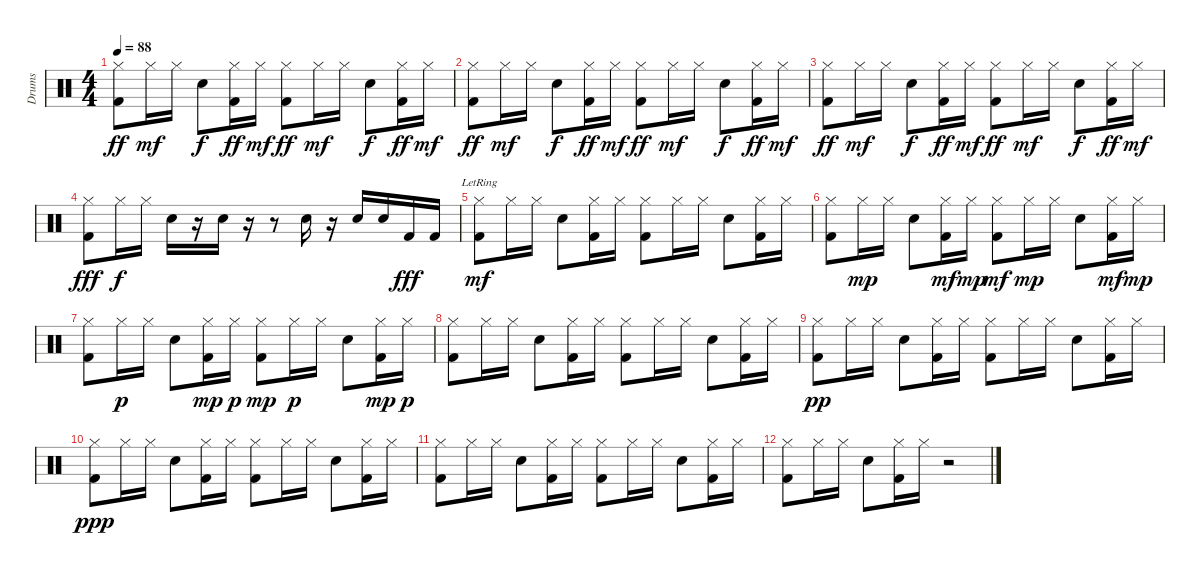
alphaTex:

\track ("Drums" "Drums") {instrument percussion}
\staff {score}
\articulation defaults
\ts (4 4)
\tempo 88
\clef neutral
\ks c
("Hi-Hat (closed)" "Kick (hit) 2").8{dy ff} "Hi-Hat (closed)".16{dy mf} "Hi-Hat (closed)".16 "Snare (hit) 2".8{dy f} ("Hi-Hat (closed)" "Kick (hit) 2").16{dy ff} "Hi-Hat (closed)".16{dy mf} ("Hi-Hat (closed)" "Kick (hit) 2").8{dy ff} "Hi-Hat (closed)".16{dy mf} "Hi-Hat (closed)".16 "Snare (hit) 2".8{dy f} ("Hi-Hat (closed)" "Kick (hit) 2").16{dy ff} "Hi-Hat (closed)".16{dy mf} |
("Hi-Hat (closed)" "Kick (hit) 2").8{dy ff} "Hi-Hat (closed)".16{dy mf} "Hi-Hat (closed)".16 "Snare (hit) 2".8{dy f} ("Hi-Hat (closed)" "Kick (hit) 2").16{dy ff} "Hi-Hat (closed)".16{dy mf} ("Hi-Hat (closed)" "Kick (hit) 2").8{dy ff} "Hi-Hat (closed)".16{dy mf} "Hi-Hat (closed)".16 "Snare (hit) 2".8{dy f} ("Hi-Hat (closed)" "Kick (hit) 2").16{dy ff} "Hi-Hat (closed)".16{dy mf} |
("Hi-Hat (closed)" "Kick (hit) 2").8{dy ff} "Hi-Hat (closed)".16{dy mf} "Hi-Hat (closed)".16 "Snare (hit) 2".8{dy f} ("Hi-Hat (closed)" "Kick (hit) 2").16{dy ff} "Hi-Hat (closed)".16{dy mf} ("Hi-Hat (closed)" "Kick (hit) 2").8{dy ff} "Hi-Hat (closed)".16{dy mf} "Hi-Hat (closed)".16 "Snare (hit) 2".8{dy f} ("Hi-Hat (closed)" "Kick (hit) 2").16{dy ff} "Hi-Hat (closed)".16{dy mf} |
("Hi-Hat (closed)" "Kick (hit) 2").8{dy fff} "Hi-Hat (closed)".16{dy f} "Hi-Hat (closed)".16 "Snare (hit) 2".16 r.16 "Snare (hit) 2".16 r.16 r.8 "Snare (hit) 2".16 r.16 "Snare (hit) 2".16 "Snare (hit) 2".16 "Kick (hit) 2".16{dy fff} "Kick (hit) 2".16 |
("Hi-Hat (closed)"{lr} "Kick (hit) 2").8{dy mf} "Hi-Hat (closed)".16 "Hi-Hat (closed)".16 "Snare (hit) 2".8 ("Hi-Hat (closed)" "Kick (hit) 2").16 "Hi-Hat (closed)".16 ("Hi-Hat (closed)" "Kick (hit) 2").8 "Hi-Hat (closed)".16 "Hi-Hat (closed)".16 "Snare (hit) 2".8 ("Hi-Hat (closed)" "Kick (hit) 2").16 "Hi-Hat (closed)".16 |
("Hi-Hat (closed)" "Kick (hit) 2").8 "Hi-Hat (closed)".16{dy mp} "Hi-Hat (closed)".16 "Snare (hit) 2".8 ("Hi-Hat (closed)" "Kick (hit) 2").16{dy mf} "Hi-Hat (closed)".16{dy mp} ("Hi-Hat (closed)" "Kick (hit) 2").8{dy mf} "Hi-Hat (closed)".16{dy mp} "Hi-Hat (closed)".16 "Snare (hit) 2".8 ("Hi-Hat (closed)" "Kick (hit) 2").16{dy mf} "Hi-Hat (closed)".16{dy mp} |
("Hi-Hat (closed)" "Kick (hit) 2").8 "Hi-Hat (closed)".16{dy p} "Hi-Hat (closed)".16 "Snare (hit) 2".8 ("Hi-Hat (closed)" "Kick (hit) 2").16{dy mp} "Hi-Hat (closed)".16{dy p} ("Hi-Hat (closed)" "Kick (hit) 2").8{dy mp} "Hi-Hat (closed)".16{dy p} "Hi-Hat (closed)".16 "Snare (hit) 2".8 ("Hi-Hat (closed)" "Kick (hit) 2").16{dy mp} "Hi-Hat (closed)".16{dy p} |
("Hi-Hat (closed)" "Kick (hit) 2").8 "Hi-Hat (closed)".16 "Hi-Hat (closed)".16 "Snare (hit) 2".8 ("Hi-Hat (closed)" "Kick (hit) 2").16 "Hi-Hat (closed)".16 ("Hi-Hat (closed)" "Kick (hit) 2").8 "Hi-Hat (closed)".16 "Hi-Hat (closed)".16 "Snare (hit) 2".8 ("Hi-Hat (closed)" "Kick (hit) 2").16 "Hi-Hat (closed)".16 |
("Hi-Hat (closed)" "Kick (hit) 2").8{dy pp} "Hi-Hat (closed)".16 "Hi-Hat (closed)".16 "Snare (hit) 2".8 ("Hi-Hat (closed)" "Kick (hit) 2").16 "Hi-Hat (closed)".16 ("Hi-Hat (closed)" "Kick (hit) 2").8 "Hi-Hat (closed)".16 "Hi-Hat (closed)".16 "Snare (hit) 2".8 ("Hi-Hat (closed)" "Kick (hit) 2").16 "Hi-Hat (closed)".16 |
("Hi-Hat (closed)" "Kick (hit) 2").8{dy ppp} "Hi-Hat (closed)".16 "Hi-Hat (closed)".16 "Snare (hit) 2".8 ("Hi-Hat (closed)" "Kick (hit) 2").16 "Hi-Hat (closed)".16 ("Hi-Hat (closed)" "Kick (hit) 2").8 "Hi-Hat (closed)".16 "Hi-Hat (closed)".16 "Snare (hit) 2".8 ("Hi-Hat (closed)" "Kick (hit) 2").16 "Hi-Hat (closed)".16 |
("Hi-Hat (closed)" "Kick (hit) 2").8 "Hi-Hat (closed)".16 "Hi-Hat (closed)".16 "Snare (hit) 2".8 ("Hi-Hat (closed)" "Kick (hit) 2").16 "Hi-Hat (closed)".16 ("Hi-Hat (closed)" "Kick (hit) 2").8 "Hi-Hat (closed)".16 "Hi-Hat (closed)".16 "Snare (hit) 2".8 ("Hi-Hat (closed)" "Kick (hit) 2").16 "Hi-Hat (closed)".16 |
("Hi-Hat (closed)" "Kick (hit) 2").8 "Hi-Hat (closed)".16 "Hi-Hat (closed)".16 "Snare (hit) 2".8 ("Hi-Hat (closed)" "Kick (hit) 2").16 "Hi-Hat (closed)".16 r.2
